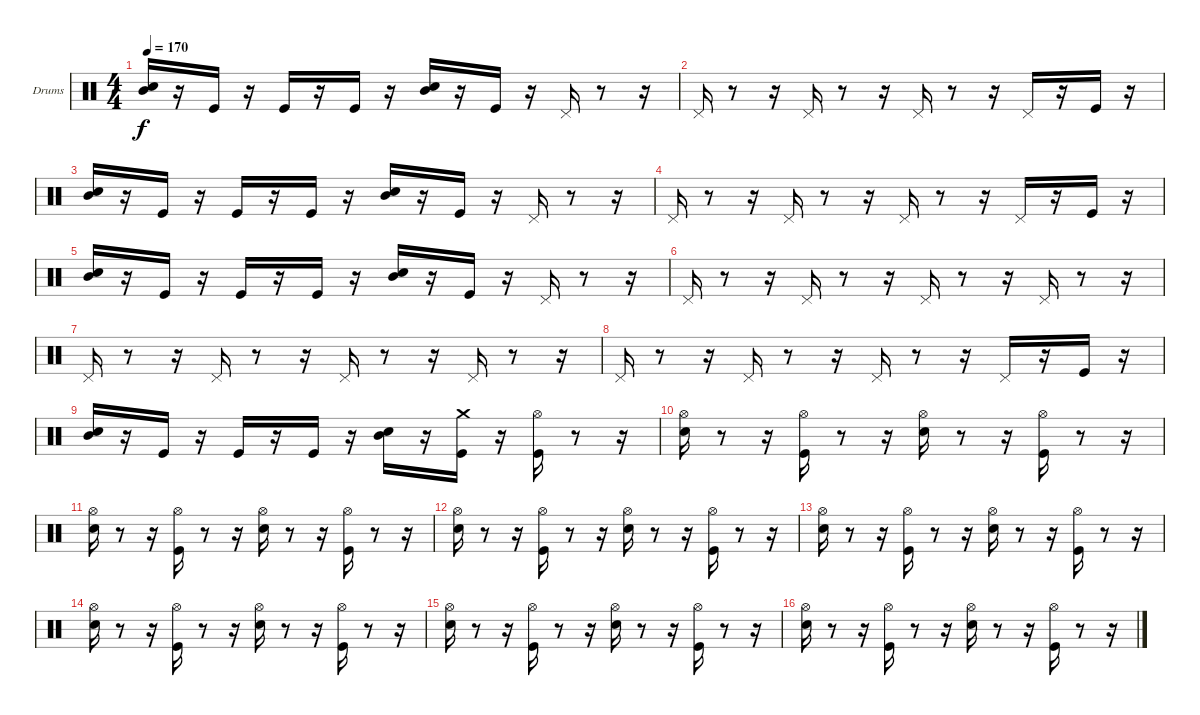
\bracketExtendMode groupsimilarinstruments
\firstSystemTrackNameOrientation horizontal
\otherSystemsTrackNameOrientation horizontal
\track ("Thomas" "Drums") {instrument percussion}
\staff {score}
\articulation defaults
\ts (4 4)
\tempo 170
\clef neutral
\ks c
("Snare (hit) 2" "Mid Tom (hit)").16{dy f} r.16 "Kick (hit)".16 r.16 "Kick (hit)".16 r.16 "Kick (hit)".16 r.16 ("Snare (hit) 2" "Mid Tom (hit)").16 r.16 "Kick (hit)".16 r.16 "Pedal Hi-Hat (hit)".16 r.8 r.16 |
"Pedal Hi-Hat (hit)".16 r.8 r.16 "Pedal Hi-Hat (hit)".16 r.8 r.16 "Pedal Hi-Hat (hit)".16 r.8 r.16 "Pedal Hi-Hat (hit)".16 r.16 "Kick (hit)".16 r.16 |
("Snare (hit) 2" "Mid Tom (hit)").16 r.16 "Kick (hit)".16 r.16 "Kick (hit)".16 r.16 "Kick (hit)".16 r.16 ("Snare (hit) 2" "Mid Tom (hit)").16 r.16 "Kick (hit)".16 r.16 "Pedal Hi-Hat (hit)".16 r.8 r.16 |
"Pedal Hi-Hat (hit)".16 r.8 r.16 "Pedal Hi-Hat (hit)".16 r.8 r.16 "Pedal Hi-Hat (hit)".16 r.8 r.16 "Pedal Hi-Hat (hit)".16 r.16 "Kick (hit)".16 r.16 |
("Snare (hit) 2" "Mid Tom (hit)").16 r.16 "Kick (hit)".16 r.16 "Kick (hit)".16 r.16 "Kick (hit)".16 r.16 ("Snare (hit) 2" "Mid Tom (hit)").16 r.16 "Kick (hit)".16 r.16 "Pedal Hi-Hat (hit)".16 r.8 r.16 |
"Pedal Hi-Hat (hit)".16 r.8 r.16 "Pedal Hi-Hat (hit)".16 r.8 r.16 "Pedal Hi-Hat (hit)".16 r.8 r.16 "Pedal Hi-Hat (hit)".16 r.8 r.16 |
"Pedal Hi-Hat (hit)".16 r.8 r.16 "Pedal Hi-Hat (hit)".16 r.8 r.16 "Pedal Hi-Hat (hit)".16 r.8 r.16 "Pedal Hi-Hat (hit)".16 r.8 r.16 |
"Pedal Hi-Hat (hit)".16 r.8 r.16 "Pedal Hi-Hat (hit)".16 r.8 r.16 "Pedal Hi-Hat (hit)".16 r.8 r.16 "Pedal Hi-Hat (hit)".16 r.16 "Kick (hit)".16 r.16 |
("Snare (hit) 2" "Mid Tom (hit)").16 r.16 "Kick (hit)".16 r.16 "Kick (hit)".16 r.16 "Kick (hit)".16 r.16 ("Snare (hit) 2" "Mid Tom (hit)").16 r.16 ("Kick (hit)" "Crash medium (hit)").16 r.16 ("Hi-Hat (open)" "Kick (hit)").16 r.8 r.16 |
("Hi-Hat (open)" "Snare (hit) 2").16 r.8 r.16 ("Kick (hit)" "Hi-Hat (open)").16 r.8 r.16 ("Snare (hit) 2" "Hi-Hat (open)").16 r.8 r.16 ("Kick (hit)" "Hi-Hat (open)").16 r.8 r.16 |
("Snare (hit) 2" "Hi-Hat (open)").16 r.8 r.16 ("Kick (hit)" "Hi-Hat (open)").16 r.8 r.16 ("Snare (hit) 2" "Hi-Hat (open)").16 r.8 r.16 ("Kick (hit)" "Hi-Hat (open)").16 r.8 r.16 |
("Snare (hit) 2" "Hi-Hat (open)").16 r.8 r.16 ("Kick (hit)" "Hi-Hat (open)").16 r.8 r.16 ("Snare (hit) 2" "Hi-Hat (open)").16 r.8 r.16 ("Kick (hit)" "Hi-Hat (open)").16 r.8 r.16 |
("Snare (hit) 2" "Hi-Hat (open)").16 r.8 r.16 ("Kick (hit)" "Hi-Hat (open)").16 r.8 r.16 ("Snare (hit) 2" "Hi-Hat (open)").16 r.8 r.16 ("Kick (hit)" "Hi-Hat (open)").16 r.8 r.16 |
("Snare (hit) 2" "Hi-Hat (open)").16 r.8 r.16 ("Kick (hit)" "Hi-Hat (open)").16 r.8 r.16 ("Snare (hit) 2" "Hi-Hat (open)").16 r.8 r.16 ("Kick (hit)" "Hi-Hat (open)").16 r.8 r.16 |
("Snare (hit) 2" "Hi-Hat (open)").16 r.8 r.16 ("Kick (hit)" "Hi-Hat (open)").16 r.8 r.16 ("Snare (hit) 2" "Hi-Hat (open)").16 r.8 r.16 ("Kick (hit)" "Hi-Hat (open)").16 r.8 r.16 |
("Snare (hit) 2" "Hi-Hat (open)").16 r.8 r.16 ("Kick (hit)" "Hi-Hat (open)").16 r.8 r.16 ("Snare (hit) 2" "Hi-Hat (open)").16 r.8 r.16 ("Kick (hit)" "Hi-Hat (open)").16 r.8 r.16
